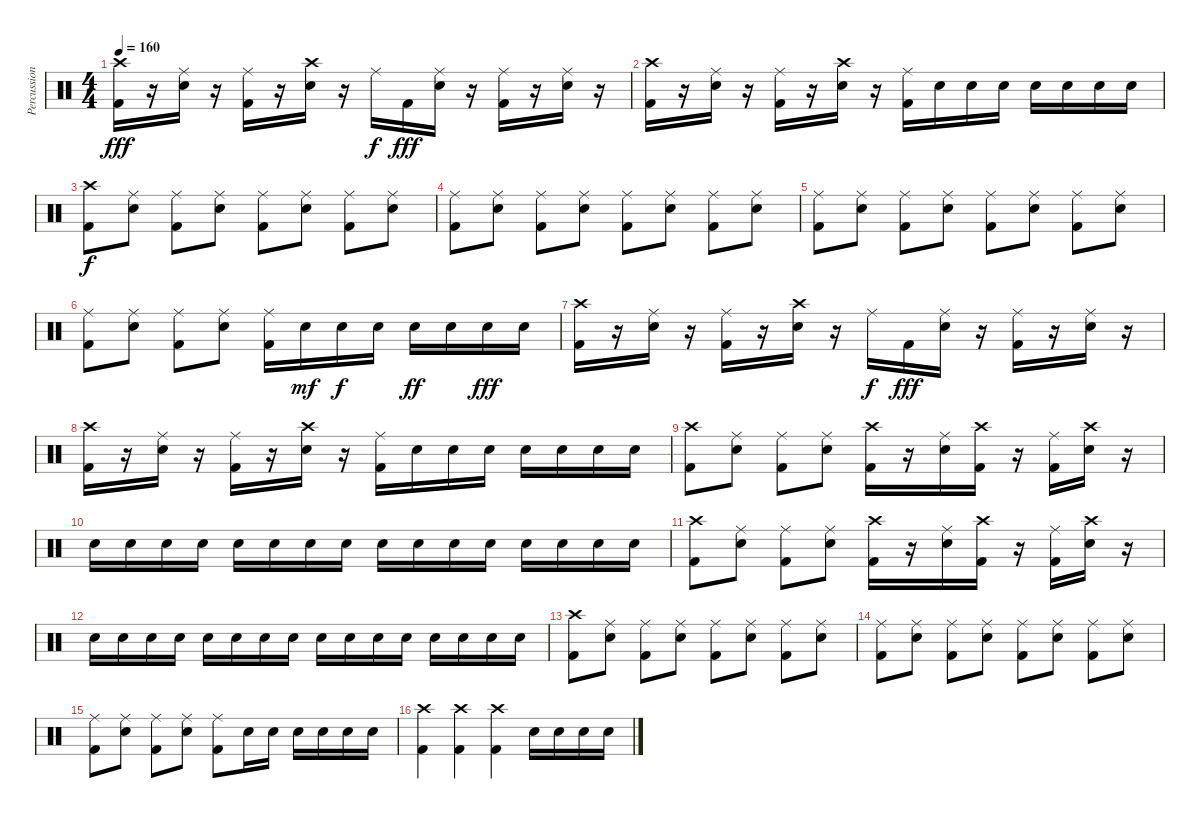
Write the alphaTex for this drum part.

\track ("Percussion" "Percussion") {instrument percussion}
\staff {score}
\articulation defaults
\ts (4 4)
\tempo 160
\clef neutral
\ks c
("Crash high (hit)" "Kick (hit) 2").16{dy fff} r.16 ("Ride (middle)" "Electric Snare (hit)").16 r.16 ("Ride (middle)" "Kick (hit) 2").16 r.16 ("Crash high (hit)" "Electric Snare (hit)").16 r.16 "Ride (middle)".16{dy f} "Kick (hit) 2".16{dy fff} ("Ride (middle)" "Electric Snare (hit)").16 r.16 ("Ride (middle)" "Kick (hit) 2").16 r.16 ("Ride (middle)" "Electric Snare (hit)").16 r.16 |
("Crash high (hit)" "Kick (hit) 2").16 r.16 ("Ride (middle)" "Electric Snare (hit)").16 r.16 ("Ride (middle)" "Kick (hit) 2").16 r.16 ("Crash high (hit)" "Electric Snare (hit)").16 r.16 ("Ride (middle)" "Kick (hit) 2").16 "Electric Snare (hit)".16 "Electric Snare (hit)".16 "Electric Snare (hit)".16 "Electric Snare (hit)".16 "Electric Snare (hit)".16 "Electric Snare (hit)".16 "Electric Snare (hit)".16 |
("Crash high (hit)" "Kick (hit) 2").8{dy f} ("Ride (middle)" "Electric Snare (hit)").8 ("Ride (middle)" "Kick (hit) 2").8 ("Ride (middle)" "Electric Snare (hit)").8 ("Ride (middle)" "Kick (hit) 2").8 ("Ride (middle)" "Electric Snare (hit)").8 ("Ride (middle)" "Kick (hit) 2").8 ("Ride (middle)" "Electric Snare (hit)").8 |
("Ride (middle)" "Kick (hit) 2").8 ("Ride (middle)" "Electric Snare (hit)").8 ("Ride (middle)" "Kick (hit) 2").8 ("Ride (middle)" "Electric Snare (hit)").8 ("Ride (middle)" "Kick (hit) 2").8 ("Ride (middle)" "Electric Snare (hit)").8 ("Ride (middle)" "Kick (hit) 2").8 ("Ride (middle)" "Electric Snare (hit)").8 |
("Ride (middle)" "Kick (hit) 2").8 ("Ride (middle)" "Electric Snare (hit)").8 ("Ride (middle)" "Kick (hit) 2").8 ("Ride (middle)" "Electric Snare (hit)").8 ("Ride (middle)" "Kick (hit) 2").8 ("Ride (middle)" "Electric Snare (hit)").8 ("Ride (middle)" "Kick (hit) 2").8 ("Ride (middle)" "Electric Snare (hit)").8 |
("Ride (middle)" "Kick (hit) 2").8 ("Ride (middle)" "Electric Snare (hit)").8 ("Ride (middle)" "Kick (hit) 2").8 ("Ride (middle)" "Electric Snare (hit)").8 ("Ride (middle)" "Kick (hit) 2").16 "Electric Snare (hit)".16{dy mf} "Electric Snare (hit)".16{dy f} "Electric Snare (hit)".16 "Electric Snare (hit)".16{dy ff} "Electric Snare (hit)".16 "Electric Snare (hit)".16{dy fff} "Electric Snare (hit)".16 |
("Crash high (hit)" "Kick (hit) 2").16 r.16 ("Ride (middle)" "Electric Snare (hit)").16 r.16 ("Ride (middle)" "Kick (hit) 2").16 r.16 ("Crash high (hit)" "Electric Snare (hit)").16 r.16 "Ride (middle)".16{dy f} "Kick (hit) 2".16{dy fff} ("Ride (middle)" "Electric Snare (hit)").16 r.16 ("Ride (middle)" "Kick (hit) 2").16 r.16 ("Ride (middle)" "Electric Snare (hit)").16 r.16 |
("Crash high (hit)" "Kick (hit) 2").16 r.16 ("Ride (middle)" "Electric Snare (hit)").16 r.16 ("Ride (middle)" "Kick (hit) 2").16 r.16 ("Crash high (hit)" "Electric Snare (hit)").16 r.16 ("Ride (middle)" "Kick (hit) 2").16 "Electric Snare (hit)".16 "Electric Snare (hit)".16 "Electric Snare (hit)".16 "Electric Snare (hit)".16 "Electric Snare (hit)".16 "Electric Snare (hit)".16 "Electric Snare (hit)".16 |
("Crash high (hit)" "Kick (hit) 2").8 ("Ride (middle)" "Electric Snare (hit)").8 ("Ride (middle)" "Kick (hit) 2").8 ("Ride (middle)" "Electric Snare (hit)").8 ("Crash high (hit)" "Kick (hit) 2").16 r.16 ("Ride (middle)" "Electric Snare (hit)").16 ("Crash high (hit)" "Kick (hit) 2").16 r.16 ("Ride (middle)" "Kick (hit) 2").16 ("Crash high (hit)" "Electric Snare (hit)").16 r.16 |
"Electric Snare (hit)".16 "Electric Snare (hit)".16 "Electric Snare (hit)".16 "Electric Snare (hit)".16 "Electric Snare (hit)".16 "Electric Snare (hit)".16 "Electric Snare (hit)".16 "Electric Snare (hit)".16 "Electric Snare (hit)".16 "Electric Snare (hit)".16 "Electric Snare (hit)".16 "Electric Snare (hit)".16 "Electric Snare (hit)".16 "Electric Snare (hit)".16 "Electric Snare (hit)".16 "Electric Snare (hit)".16 |
("Crash high (hit)" "Kick (hit) 2").8 ("Ride (middle)" "Electric Snare (hit)").8 ("Ride (middle)" "Kick (hit) 2").8 ("Ride (middle)" "Electric Snare (hit)").8 ("Crash high (hit)" "Kick (hit) 2").16 r.16 ("Ride (middle)" "Electric Snare (hit)").16 ("Crash high (hit)" "Kick (hit) 2").16 r.16 ("Ride (middle)" "Kick (hit) 2").16 ("Crash high (hit)" "Electric Snare (hit)").16 r.16 |
"Electric Snare (hit)".16 "Electric Snare (hit)".16 "Electric Snare (hit)".16 "Electric Snare (hit)".16 "Electric Snare (hit)".16 "Electric Snare (hit)".16 "Electric Snare (hit)".16 "Electric Snare (hit)".16 "Electric Snare (hit)".16 "Electric Snare (hit)".16 "Electric Snare (hit)".16 "Electric Snare (hit)".16 "Electric Snare (hit)".16 "Electric Snare (hit)".16 "Electric Snare (hit)".16 "Electric Snare (hit)".16 |
("Crash high (hit)" "Kick (hit) 2").8 ("Ride (middle)" "Electric Snare (hit)").8 ("Ride (middle)" "Kick (hit) 2").8 ("Ride (middle)" "Electric Snare (hit)").8 ("Ride (middle)" "Kick (hit) 2").8 ("Ride (middle)" "Electric Snare (hit)").8 ("Ride (middle)" "Kick (hit) 2").8 ("Ride (middle)" "Electric Snare (hit)").8 |
("Ride (middle)" "Kick (hit) 2").8 ("Ride (middle)" "Electric Snare (hit)").8 ("Ride (middle)" "Kick (hit) 2").8 ("Ride (middle)" "Electric Snare (hit)").8 ("Ride (middle)" "Kick (hit) 2").8 ("Ride (middle)" "Electric Snare (hit)").8 ("Ride (middle)" "Kick (hit) 2").8 ("Ride (middle)" "Electric Snare (hit)").8 |
("Ride (middle)" "Kick (hit) 2").8 ("Ride (middle)" "Electric Snare (hit)").8 ("Ride (middle)" "Kick (hit) 2").8 ("Ride (middle)" "Electric Snare (hit)").8 ("Ride (middle)" "Kick (hit) 2").8 "Electric Snare (hit)".16 "Electric Snare (hit)".16 "Electric Snare (hit)".16 "Electric Snare (hit)".16 "Electric Snare (hit)".16 "Electric Snare (hit)".16 |
("Crash high (hit)" "Kick (hit) 2").4 ("Crash high (hit)" "Kick (hit) 2").4 ("Crash high (hit)" "Kick (hit) 2").4 "Electric Snare (hit)".16 "Electric Snare (hit)".16 "Electric Snare (hit)".16 "Electric Snare (hit)".16
